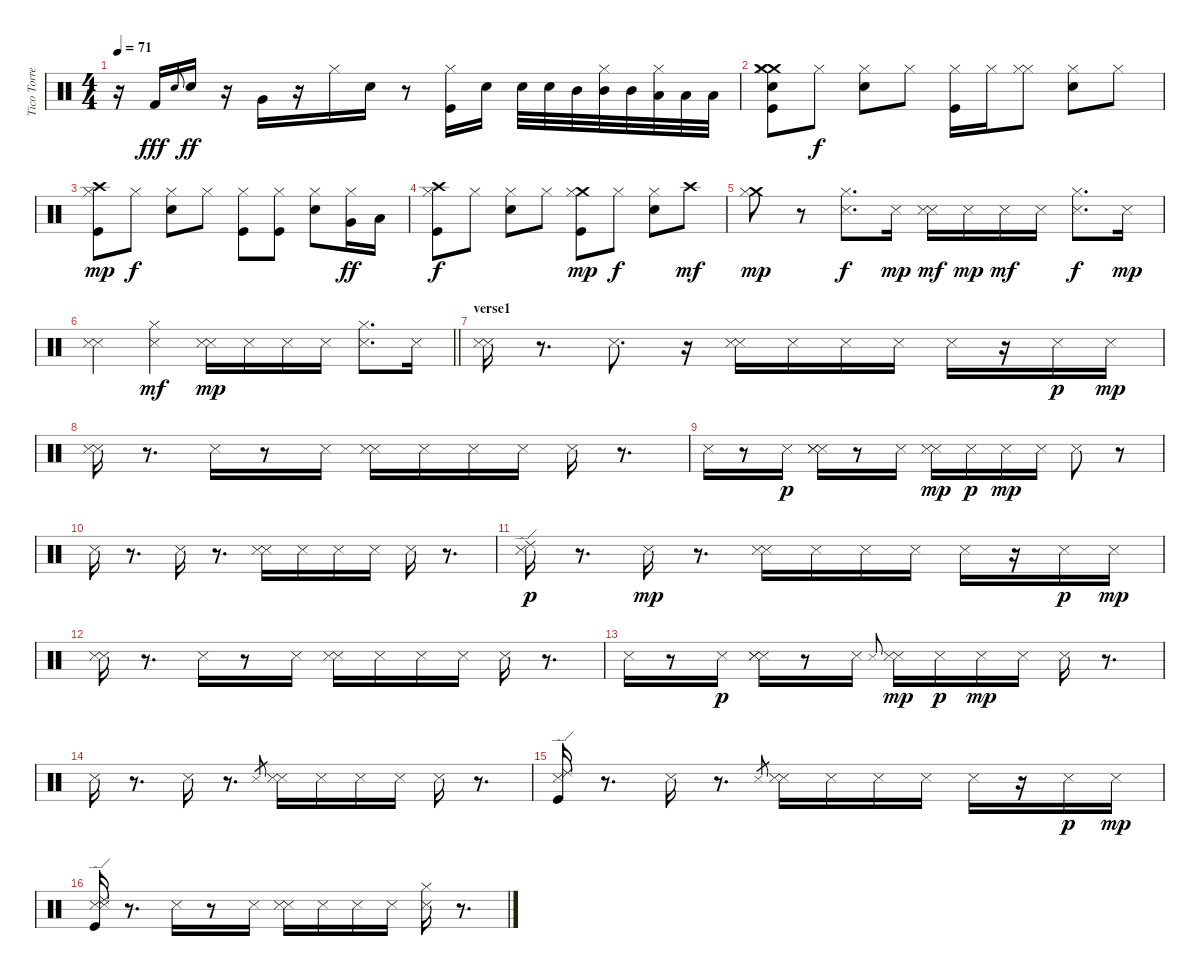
\track ("Tico Torres" "Tico Torre") {instrument percussion}
\staff {score}
\articulation defaults
\ts (4 4)
\tempo 71
\clef neutral
\ks c
r.16{dy fff} "Kick (hit) 2".16 "Electric Snare (hit)".8{gr onbeat} "Electric Snare (hit)".16{dy ff} r.16 "Very Low Tom (hit)".16 r.16 "Hi-Hat (closed)".16 "Electric Snare (hit)".16 r.8 ("Kick (hit)" "Hi-Hat (closed)").16 "Electric Snare (hit)".16 "Electric Snare (hit)".32 "Electric Snare (hit)".32 "Mid Tom (hit)".32 ("Hi-Hat (closed)" "Mid Tom (hit)").32 "Mid Tom (hit)".32 ("Low Tom (hit)" "Hi-Hat (closed)").32 "Low Tom (hit)".32 "Low Tom (hit)".32 |
("Kick (hit)" "Crash medium (hit)" "Electric Snare (hit)" "Crash medium (hit)" "Hi-Hat (closed)").8 "Hi-Hat (closed)".8{dy f} ("Snare (hit) 2" "Hi-Hat (closed)").8 "Hi-Hat (closed)".8 ("Kick (hit)" "Hi-Hat (closed)").16 "Hi-Hat (closed)".16 ("Hi-Hat (closed)" "Hi-Hat (closed)").8 ("Snare (hit) 2" "Hi-Hat (closed)").8 "Hi-Hat (closed)".8 |
("Kick (hit)" "Hi-Hat (closed)" "Crash high (hit)").8{dy mp} "Hi-Hat (closed)".8{dy f} ("Snare (hit) 2" "Hi-Hat (closed)").8 "Hi-Hat (closed)".8 ("Kick (hit)" "Hi-Hat (closed)").8 ("Kick (hit)" "Hi-Hat (closed)").8 ("Snare (hit) 2" "Hi-Hat (closed)").8 ("Very Low Tom (hit)" "Hi-Hat (closed)").16{dy ff} "Low Floor Tom (hit)".16 |
("Crash high (hit)" "Kick (hit)" "Hi-Hat (closed)").8{dy f} "Hi-Hat (closed)".8 ("Snare (hit) 2" "Hi-Hat (closed)").8 "Hi-Hat (closed)".8 ("Crash medium (hit)" "Kick (hit)" "Hi-Hat (closed)").8{dy mp} "Hi-Hat (closed)".8{dy f} ("Snare (hit) 2" "Hi-Hat (closed)").8 "Crash high (hit)".8{dy mf} |
("Crash medium (hit)" "Hi-Hat (closed)").8{dy mp} r.8 ("Snare (side stick) 3" "Hi-Hat (closed)").8{d dy f} "Snare (side stick) 3".16{dy mp} ("Snare (side stick) 3" "Snare (side stick) 3").16{dy mf} "Snare (side stick) 3".16{dy mp} "Snare (side stick) 3".16{dy mf} "Snare (side stick) 3".16 ("Hi-Hat (closed)" "Snare (side stick) 3").8{d dy f} "Snare (side stick) 3".16{dy mp} |
\barLineRight lightlight
("Snare (side stick) 3" "Snare (side stick) 3").4 ("Hi-Hat (closed)" "Snare (side stick) 3").4{dy mf} ("Snare (side stick) 3" "Snare (side stick) 3").16{dy mp} "Snare (side stick) 3".16 "Snare (side stick) 3".16 "Snare (side stick) 3".16 ("Hi-Hat (closed)" "Snare (side stick) 3").8{d} "Snare (side stick) 3".16 |
\section ("" "verse1")
("Snare (side stick) 3" "Snare (side stick) 3").16 r.8{d} "Snare (side stick) 3".8{d} r.16 ("Snare (side stick) 3" "Snare (side stick) 3").16 "Snare (side stick) 3".16 "Snare (side stick) 3".16 "Snare (side stick) 3".16 "Snare (side stick) 3".16 r.16 "Snare (side stick) 3".16{dy p} "Snare (side stick) 3".16{dy mp} |
("Snare (side stick) 3" "Snare (side stick) 3").16 r.8{d} "Snare (side stick) 3".16 r.8 "Snare (side stick) 3".16 ("Snare (side stick) 3" "Snare (side stick) 3").16 "Snare (side stick) 3".16 "Snare (side stick) 3".16 "Snare (side stick) 3".16 "Snare (side stick) 3".16 r.8{d} |
"Snare (side stick) 3".16 r.8 "Snare (side stick) 3".16{dy p} ("Snare (side stick) 3" "Snare (side stick) 3" "Snare (side stick) 3").16 r.8 "Snare (side stick) 3".16 ("Snare (side stick) 3" "Snare (side stick) 3").16{dy mp} "Snare (side stick) 3".16{dy p} "Snare (side stick) 3".16{dy mp} "Snare (side stick) 3".16 "Snare (side stick) 3".8 r.8 |
"Snare (side stick) 3".16 r.8{d} "Snare (side stick) 3".16 r.8{d} ("Snare (side stick) 3" "Snare (side stick) 3").16 "Snare (side stick) 3".16 "Snare (side stick) 3".16 "Snare (side stick) 3".16 "Snare (side stick) 3".16 r.8{d} |
("Snare (side stick) 3" "Ride (edge) 2").16{dy p} r.8{d} "Snare (side stick) 3".16{dy mp} r.8{d} ("Snare (side stick) 3" "Snare (side stick) 3").16 "Snare (side stick) 3".16 "Snare (side stick) 3".16 "Snare (side stick) 3".16 "Snare (side stick) 3".16 r.16 "Snare (side stick) 3".16{dy p} "Snare (side stick) 3".16{dy mp} |
("Snare (side stick) 3" "Snare (side stick) 3").16 r.8{d} "Snare (side stick) 3".16 r.8 "Snare (side stick) 3".16 ("Snare (side stick) 3" "Snare (side stick) 3").16 "Snare (side stick) 3".16 "Snare (side stick) 3".16 "Snare (side stick) 3".16 "Snare (side stick) 3".16 r.8{d} |
"Snare (side stick) 3".16 r.8 "Snare (side stick) 3".16{dy p} ("Snare (side stick) 3" "Snare (side stick) 3" "Snare (side stick) 3").16 r.8 "Snare (side stick) 3".16 "Snare (side stick) 3".8{gr onbeat} ("Snare (side stick) 3" "Snare (side stick) 3").16{dy mp} "Snare (side stick) 3".16{dy p} "Snare (side stick) 3".16{dy mp} "Snare (side stick) 3".16 "Snare (side stick) 3".16 r.8{d} |
"Snare (side stick) 3".16 r.8{d} "Snare (side stick) 3".16 r.8{d} "Snare (side stick) 3".8{gr} ("Snare (side stick) 3" "Snare (side stick) 3").16 "Snare (side stick) 3".16 "Snare (side stick) 3".16 "Snare (side stick) 3".16 "Snare (side stick) 3".16 r.8{d} |
("Kick (hit)" "Snare (side stick) 3" "Ride (edge) 2").16 r.8{d} "Snare (side stick) 3".16 r.8{d} "Snare (side stick) 3".8{gr} ("Snare (side stick) 3" "Snare (side stick) 3").16 "Snare (side stick) 3".16 "Snare (side stick) 3".16 "Snare (side stick) 3".16 "Snare (side stick) 3".16 r.16 "Snare (side stick) 3".16{dy p} "Snare (side stick) 3".16{dy mp} |
("Snare (side stick) 3" "Kick (hit)" "Snare (side stick) 3" "Ride (edge) 2").16 r.8{d} "Snare (side stick) 3".16 r.8 "Snare (side stick) 3".16 ("Snare (side stick) 3" "Snare (side stick) 3").16 "Snare (side stick) 3".16 "Snare (side stick) 3".16 "Snare (side stick) 3".16 ("Hi-Hat (closed)" "Snare (side stick) 3").16 r.8{d}
